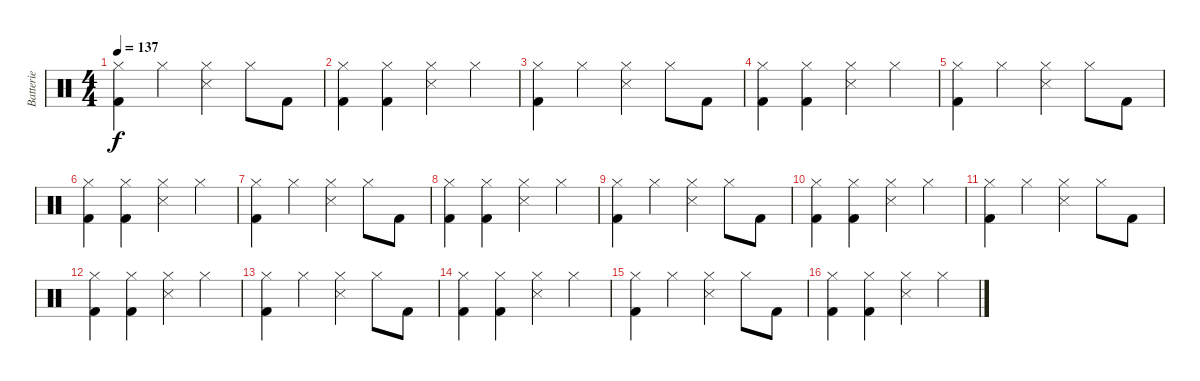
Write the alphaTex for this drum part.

\track ("Batterie" "Batterie") {instrument percussion}
\staff {score}
\articulation defaults
\ts (4 4)
\tempo 137
\clef neutral
\ks c
("Kick (hit) 2" "Hi-Hat (closed)").4{dy f} "Hi-Hat (closed)".4 ("Snare (side stick) 3" "Hi-Hat (closed)").4 "Hi-Hat (closed)".8 "Kick (hit) 2".8 |
("Kick (hit) 2" "Hi-Hat (closed)").4 ("Kick (hit) 2" "Hi-Hat (closed)").4 ("Snare (side stick) 3" "Hi-Hat (closed)").4 "Hi-Hat (closed)".4 |
("Kick (hit) 2" "Hi-Hat (closed)").4 "Hi-Hat (closed)".4 ("Snare (side stick) 3" "Hi-Hat (closed)").4 "Hi-Hat (closed)".8 "Kick (hit) 2".8 |
("Kick (hit) 2" "Hi-Hat (closed)").4 ("Kick (hit) 2" "Hi-Hat (closed)").4 ("Snare (side stick) 3" "Hi-Hat (closed)").4 "Hi-Hat (closed)".4 |
("Kick (hit) 2" "Hi-Hat (closed)").4 "Hi-Hat (closed)".4 ("Snare (side stick) 3" "Hi-Hat (closed)").4 "Hi-Hat (closed)".8 "Kick (hit) 2".8 |
("Kick (hit) 2" "Hi-Hat (closed)").4 ("Kick (hit) 2" "Hi-Hat (closed)").4 ("Snare (side stick) 3" "Hi-Hat (closed)").4 "Hi-Hat (closed)".4 |
("Kick (hit) 2" "Hi-Hat (closed)").4 "Hi-Hat (closed)".4 ("Snare (side stick) 3" "Hi-Hat (closed)").4 "Hi-Hat (closed)".8 "Kick (hit) 2".8 |
("Kick (hit) 2" "Hi-Hat (closed)").4 ("Kick (hit) 2" "Hi-Hat (closed)").4 ("Snare (side stick) 3" "Hi-Hat (closed)").4 "Hi-Hat (closed)".4 |
("Kick (hit) 2" "Hi-Hat (closed)").4 "Hi-Hat (closed)".4 ("Snare (side stick) 3" "Hi-Hat (closed)").4 "Hi-Hat (closed)".8 "Kick (hit) 2".8 |
("Kick (hit) 2" "Hi-Hat (closed)").4 ("Kick (hit) 2" "Hi-Hat (closed)").4 ("Snare (side stick) 3" "Hi-Hat (closed)").4 "Hi-Hat (closed)".4 |
("Kick (hit) 2" "Hi-Hat (closed)").4 "Hi-Hat (closed)".4 ("Snare (side stick) 3" "Hi-Hat (closed)").4 "Hi-Hat (closed)".8 "Kick (hit) 2".8 |
("Kick (hit) 2" "Hi-Hat (closed)").4 ("Kick (hit) 2" "Hi-Hat (closed)").4 ("Snare (side stick) 3" "Hi-Hat (closed)").4 "Hi-Hat (closed)".4 |
("Kick (hit) 2" "Hi-Hat (closed)").4 "Hi-Hat (closed)".4 ("Snare (side stick) 3" "Hi-Hat (closed)").4 "Hi-Hat (closed)".8 "Kick (hit) 2".8 |
("Kick (hit) 2" "Hi-Hat (closed)").4 ("Kick (hit) 2" "Hi-Hat (closed)").4 ("Snare (side stick) 3" "Hi-Hat (closed)").4 "Hi-Hat (closed)".4 |
("Kick (hit) 2" "Hi-Hat (closed)").4 "Hi-Hat (closed)".4 ("Snare (side stick) 3" "Hi-Hat (closed)").4 "Hi-Hat (closed)".8 "Kick (hit) 2".8 |
("Kick (hit) 2" "Hi-Hat (closed)").4 ("Kick (hit) 2" "Hi-Hat (closed)").4 ("Snare (side stick) 3" "Hi-Hat (closed)").4 "Hi-Hat (closed)".4
